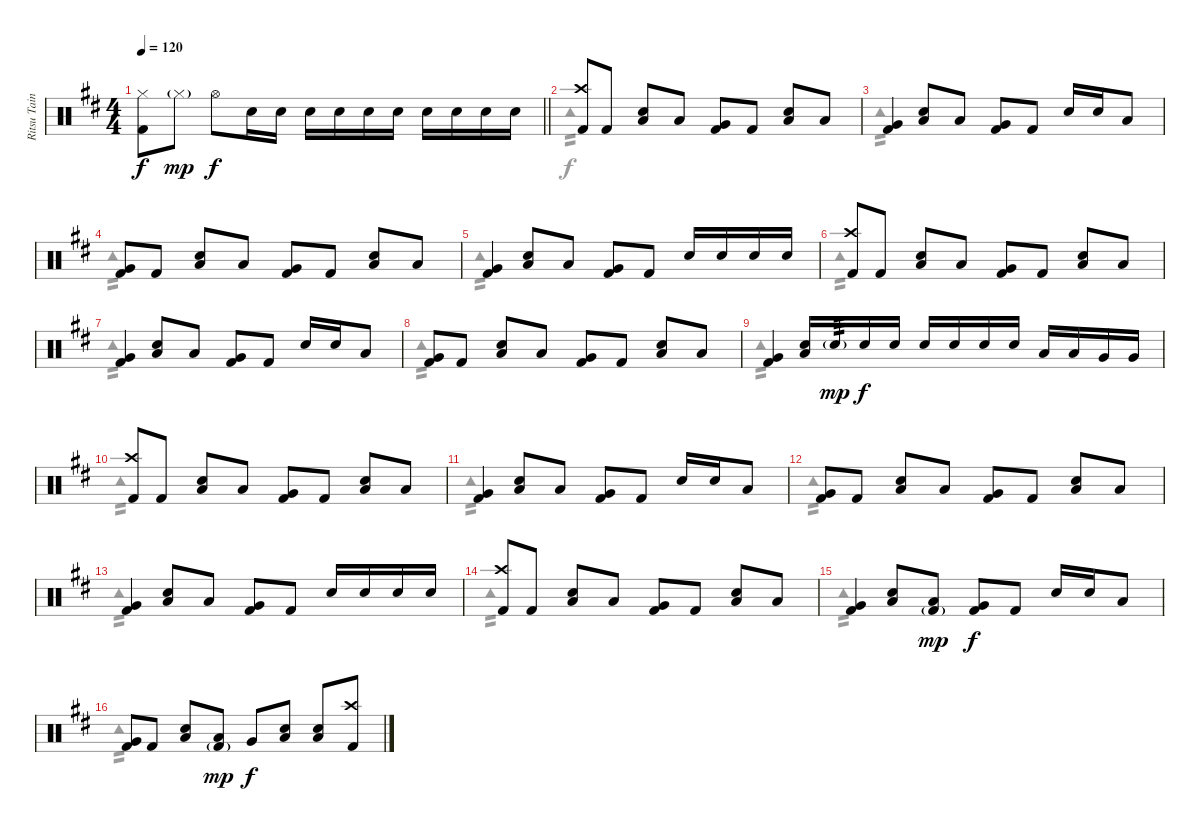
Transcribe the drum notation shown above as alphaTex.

\track ("Ritsu Tainaka" "Ritsu Tain") {instrument percussion}
\staff {score}
\articulation defaults
\voice
\ts (4 4)
\tempo 120
\clef neutral
\barLineRight lightlight
\ks d
("Hi-Hat (closed)" "Kick (hit) 2").8{dy f} "Hi-Hat (closed)"{g}.8{dy mp} "Hi-Hat (open)".8{dy f} "Snare (hit) 2".16 "Snare (hit) 2".16 "Snare (hit) 2".16 "Snare (hit) 2".16 "Snare (hit) 2".16 "Snare (hit) 2".16 "Snare (hit) 2".16 "Snare (hit) 2".16 "Snare (hit) 2".16 "Snare (hit) 2".16 |
("Crash high (hit)" "Kick (hit) 2").8 "Kick (hit) 2".8 ("Snare (hit) 2" "Low Floor Tom (hit)").8 "Low Tom (hit)".8 ("Very Low Tom (hit)" "Kick (hit) 2").8 "Kick (hit) 2".8 ("Snare (hit) 2" "Low Floor Tom (hit)").8 "Low Tom (hit)".8 |
("Very Low Tom (hit)" "Kick (hit) 2").4 ("Snare (hit) 2" "Low Floor Tom (hit)").8 "Low Tom (hit)".8 ("Very Low Tom (hit)" "Kick (hit) 2").8 "Kick (hit) 2".8 "Snare (hit) 2".16 "Snare (hit) 2".16 "Low Tom (hit)".8 |
("Very Low Tom (hit)" "Kick (hit) 2").8 "Kick (hit) 2".8 ("Snare (hit) 2" "Low Floor Tom (hit)").8 "Low Tom (hit)".8 ("Very Low Tom (hit)" "Kick (hit) 2").8 "Kick (hit) 2".8 ("Snare (hit) 2" "Low Floor Tom (hit)").8 "Low Tom (hit)".8 |
("Very Low Tom (hit)" "Kick (hit) 2").4 ("Snare (hit) 2" "Low Floor Tom (hit)").8 "Low Tom (hit)".8 ("Very Low Tom (hit)" "Kick (hit) 2").8 "Kick (hit) 2".8 "Snare (hit) 2".16 "Snare (hit) 2".16 "Snare (hit) 2".16 "Snare (hit) 2".16 |
("Crash high (hit)" "Kick (hit) 2").8 "Kick (hit) 2".8 ("Snare (hit) 2" "Low Floor Tom (hit)").8 "Low Tom (hit)".8 ("Very Low Tom (hit)" "Kick (hit) 2").8 "Kick (hit) 2".8 ("Snare (hit) 2" "Low Floor Tom (hit)").8 "Low Tom (hit)".8 |
("Very Low Tom (hit)" "Kick (hit) 2").4 ("Snare (hit) 2" "Low Floor Tom (hit)").8 "Low Tom (hit)".8 ("Very Low Tom (hit)" "Kick (hit) 2").8 "Kick (hit) 2".8 "Snare (hit) 2".16 "Snare (hit) 2".16 "Low Tom (hit)".8 |
("Very Low Tom (hit)" "Kick (hit) 2").8 "Kick (hit) 2".8 ("Snare (hit) 2" "Low Floor Tom (hit)").8 "Low Tom (hit)".8 ("Very Low Tom (hit)" "Kick (hit) 2").8 "Kick (hit) 2".8 ("Snare (hit) 2" "Low Floor Tom (hit)").8 "Low Tom (hit)".8 |
("Very Low Tom (hit)" "Kick (hit) 2").4 ("Snare (hit) 2" "Low Floor Tom (hit)").16 "Snare (hit) 2"{g}.16{tp 3 dy mp} "Snare (hit) 2".16{dy f} "Snare (hit) 2".16 "Snare (hit) 2".16 "Snare (hit) 2".16 "Snare (hit) 2".16 "Snare (hit) 2".16 "Low Tom (hit)".16 "Low Tom (hit)".16 "Very Low Tom (hit)".16 "Very Low Tom (hit)".16 |
("Crash high (hit)" "Kick (hit) 2").8 "Kick (hit) 2".8 ("Snare (hit) 2" "Low Floor Tom (hit)").8 "Low Tom (hit)".8 ("Very Low Tom (hit)" "Kick (hit) 2").8 "Kick (hit) 2".8 ("Snare (hit) 2" "Low Floor Tom (hit)").8 "Low Tom (hit)".8 |
("Very Low Tom (hit)" "Kick (hit) 2").4 ("Snare (hit) 2" "Low Floor Tom (hit)").8 "Low Tom (hit)".8 ("Very Low Tom (hit)" "Kick (hit) 2").8 "Kick (hit) 2".8 "Snare (hit) 2".16 "Snare (hit) 2".16 "Low Tom (hit)".8 |
("Very Low Tom (hit)" "Kick (hit) 2").8 "Kick (hit) 2".8 ("Snare (hit) 2" "Low Floor Tom (hit)").8 "Low Tom (hit)".8 ("Very Low Tom (hit)" "Kick (hit) 2").8 "Kick (hit) 2".8 ("Snare (hit) 2" "Low Floor Tom (hit)").8 "Low Tom (hit)".8 |
("Very Low Tom (hit)" "Kick (hit) 2").4 ("Snare (hit) 2" "Low Floor Tom (hit)").8 "Low Tom (hit)".8 ("Very Low Tom (hit)" "Kick (hit) 2").8 "Kick (hit) 2".8 "Snare (hit) 2".16 "Snare (hit) 2".16 "Snare (hit) 2".16 "Snare (hit) 2".16 |
("Crash high (hit)" "Kick (hit) 2").8 "Kick (hit) 2".8 ("Snare (hit) 2" "Low Floor Tom (hit)").8 "Low Tom (hit)".8 ("Very Low Tom (hit)" "Kick (hit) 2").8 "Kick (hit) 2".8 ("Snare (hit) 2" "Low Floor Tom (hit)").8 "Low Tom (hit)".8 |
("Very Low Tom (hit)" "Kick (hit) 2").4 ("Snare (hit) 2" "Low Floor Tom (hit)").8 ("Low Tom (hit)" "Kick (hit) 2"{g}).8{dy mp} ("Very Low Tom (hit)" "Kick (hit) 2").8{dy f} "Kick (hit) 2".8 "Snare (hit) 2".16 "Snare (hit) 2".16 "Low Tom (hit)".8 |
("Very Low Tom (hit)" "Kick (hit) 2").8 "Kick (hit) 2".8 ("Snare (hit) 2" "Low Floor Tom (hit)").8 ("Low Tom (hit)" "Kick (hit) 2"{g}).8{dy mp} "Very Low Tom (hit)".8{dy f} ("Snare (hit) 2" "Low Floor Tom (hit)").8 ("Snare (hit) 2" "Low Floor Tom (hit)").8 ("Crash high (hit)" "Kick (hit) 2").8
\voice
\clef neutral
\ottava regular
\simile none
\barLineRight lightlight
\ks d
|
"Tambourine (hit)".1{tp 2} |
"Tambourine (hit)".1{tp 2} |
"Tambourine (hit)".1{tp 2} |
"Tambourine (hit)".1{tp 2} |
"Tambourine (hit)".1{tp 2} |
"Tambourine (hit)".1{tp 2} |
"Tambourine (hit)".1{tp 2} |
"Tambourine (hit)".1{tp 2} |
"Tambourine (hit)".1{tp 2} |
"Tambourine (hit)".1{tp 2} |
"Tambourine (hit)".1{tp 2} |
"Tambourine (hit)".1{tp 2} |
"Tambourine (hit)".1{tp 2} |
"Tambourine (hit)".1{tp 2} |
"Tambourine (hit)".1{tp 2}
